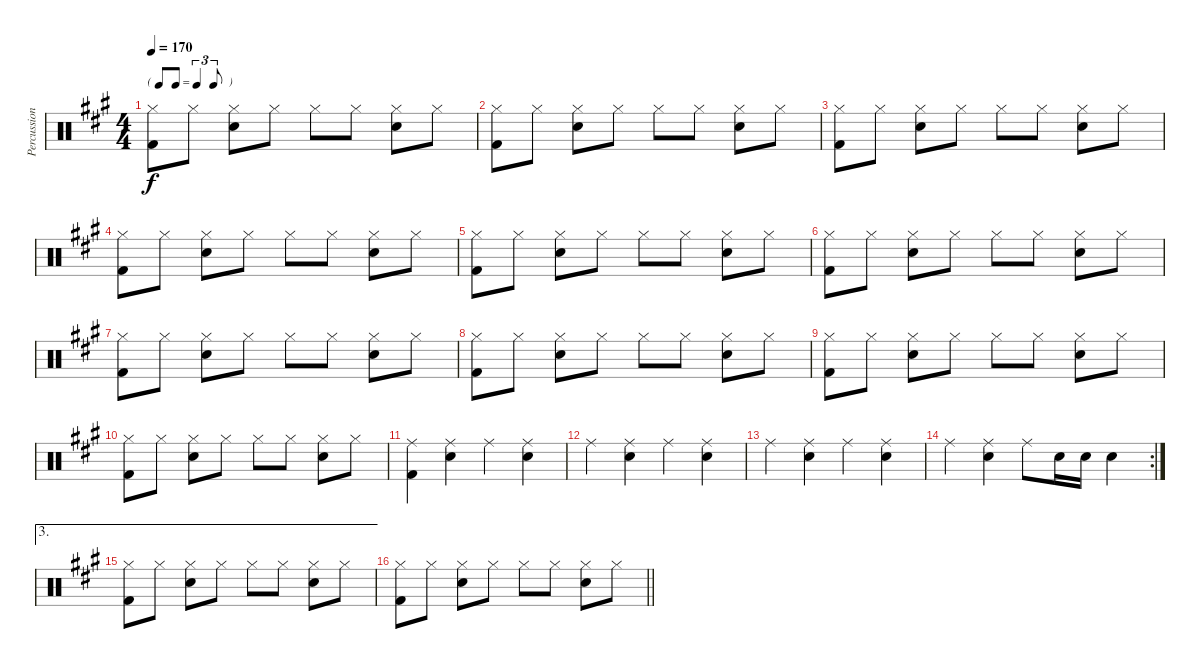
\track ("Percussion" "Percussion") {instrument percussion}
\staff {score}
\articulation defaults
\ts (4 4)
\tf triplet8th
\tempo 170
\clef neutral
\ks a
("Hi-Hat (closed)" "Kick (hit) 2").8{dy f} "Hi-Hat (closed)".8 ("Hi-Hat (closed)" "Snare (hit) 2").8 "Hi-Hat (closed)".8 "Hi-Hat (closed)".8 "Hi-Hat (closed)".8 ("Hi-Hat (closed)" "Snare (hit) 2").8 "Hi-Hat (closed)".8 |
("Hi-Hat (closed)" "Kick (hit) 2").8 "Hi-Hat (closed)".8 ("Hi-Hat (closed)" "Snare (hit) 2").8 "Hi-Hat (closed)".8 "Hi-Hat (closed)".8 "Hi-Hat (closed)".8 ("Hi-Hat (closed)" "Snare (hit) 2").8 "Hi-Hat (closed)".8 |
("Hi-Hat (closed)" "Kick (hit) 2").8 "Hi-Hat (closed)".8 ("Hi-Hat (closed)" "Snare (hit) 2").8 "Hi-Hat (closed)".8 "Hi-Hat (closed)".8 "Hi-Hat (closed)".8 ("Hi-Hat (closed)" "Snare (hit) 2").8 "Hi-Hat (closed)".8 |
("Hi-Hat (closed)" "Kick (hit) 2").8 "Hi-Hat (closed)".8 ("Hi-Hat (closed)" "Snare (hit) 2").8 "Hi-Hat (closed)".8 "Hi-Hat (closed)".8 "Hi-Hat (closed)".8 ("Hi-Hat (closed)" "Snare (hit) 2").8 "Hi-Hat (closed)".8 |
("Hi-Hat (closed)" "Kick (hit) 2").8 "Hi-Hat (closed)".8 ("Hi-Hat (closed)" "Snare (hit) 2").8 "Hi-Hat (closed)".8 "Hi-Hat (closed)".8 "Hi-Hat (closed)".8 ("Hi-Hat (closed)" "Snare (hit) 2").8 "Hi-Hat (closed)".8 |
("Hi-Hat (closed)" "Kick (hit) 2").8 "Hi-Hat (closed)".8 ("Hi-Hat (closed)" "Snare (hit) 2").8 "Hi-Hat (closed)".8 "Hi-Hat (closed)".8 "Hi-Hat (closed)".8 ("Hi-Hat (closed)" "Snare (hit) 2").8 "Hi-Hat (closed)".8 |
("Hi-Hat (closed)" "Kick (hit) 2").8 "Hi-Hat (closed)".8 ("Hi-Hat (closed)" "Snare (hit) 2").8 "Hi-Hat (closed)".8 "Hi-Hat (closed)".8 "Hi-Hat (closed)".8 ("Hi-Hat (closed)" "Snare (hit) 2").8 "Hi-Hat (closed)".8 |
("Hi-Hat (closed)" "Kick (hit) 2").8 "Hi-Hat (closed)".8 ("Hi-Hat (closed)" "Snare (hit) 2").8 "Hi-Hat (closed)".8 "Hi-Hat (closed)".8 "Hi-Hat (closed)".8 ("Hi-Hat (closed)" "Snare (hit) 2").8 "Hi-Hat (closed)".8 |
("Hi-Hat (closed)" "Kick (hit) 2").8 "Hi-Hat (closed)".8 ("Hi-Hat (closed)" "Snare (hit) 2").8 "Hi-Hat (closed)".8 "Hi-Hat (closed)".8 "Hi-Hat (closed)".8 ("Hi-Hat (closed)" "Snare (hit) 2").8 "Hi-Hat (closed)".8 |
("Hi-Hat (closed)" "Kick (hit) 2").8 "Hi-Hat (closed)".8 ("Hi-Hat (closed)" "Snare (hit) 2").8 "Hi-Hat (closed)".8 "Hi-Hat (closed)".8 "Hi-Hat (closed)".8 ("Hi-Hat (closed)" "Snare (hit) 2").8 "Hi-Hat (closed)".8 |
("Ride (middle)" "Kick (hit) 2").4 ("Ride (middle)" "Snare (hit) 2").4 "Ride (middle)".4 ("Ride (middle)" "Snare (hit) 2").4 |
"Ride (middle)".4 ("Ride (middle)" "Snare (hit) 2").4 "Ride (middle)".4 ("Ride (middle)" "Snare (hit) 2").4 |
"Ride (middle)".4 ("Ride (middle)" "Snare (hit) 2").4 "Ride (middle)".4 ("Ride (middle)" "Snare (hit) 2").4 |
\rc 2 "Ride (middle)".4
("Ride (middle)" "Snare (hit) 2").4 "Ride (middle)".8 "Snare (hit) 2".16 "Snare (hit) 2".16 "Snare (hit) 2".4 |
\ae 3
("Hi-Hat (closed)" "Kick (hit) 2").8 "Hi-Hat (closed)".8 ("Hi-Hat (closed)" "Snare (hit) 2").8 "Hi-Hat (closed)".8 "Hi-Hat (closed)".8 "Hi-Hat (closed)".8 ("Hi-Hat (closed)" "Snare (hit) 2").8 "Hi-Hat (closed)".8 |
\barLineRight lightlight
("Hi-Hat (closed)" "Kick (hit) 2").8 "Hi-Hat (closed)".8 ("Hi-Hat (closed)" "Snare (hit) 2").8 "Hi-Hat (closed)".8 "Hi-Hat (closed)".8 "Hi-Hat (closed)".8 ("Hi-Hat (closed)" "Snare (hit) 2").8 "Hi-Hat (closed)".8
